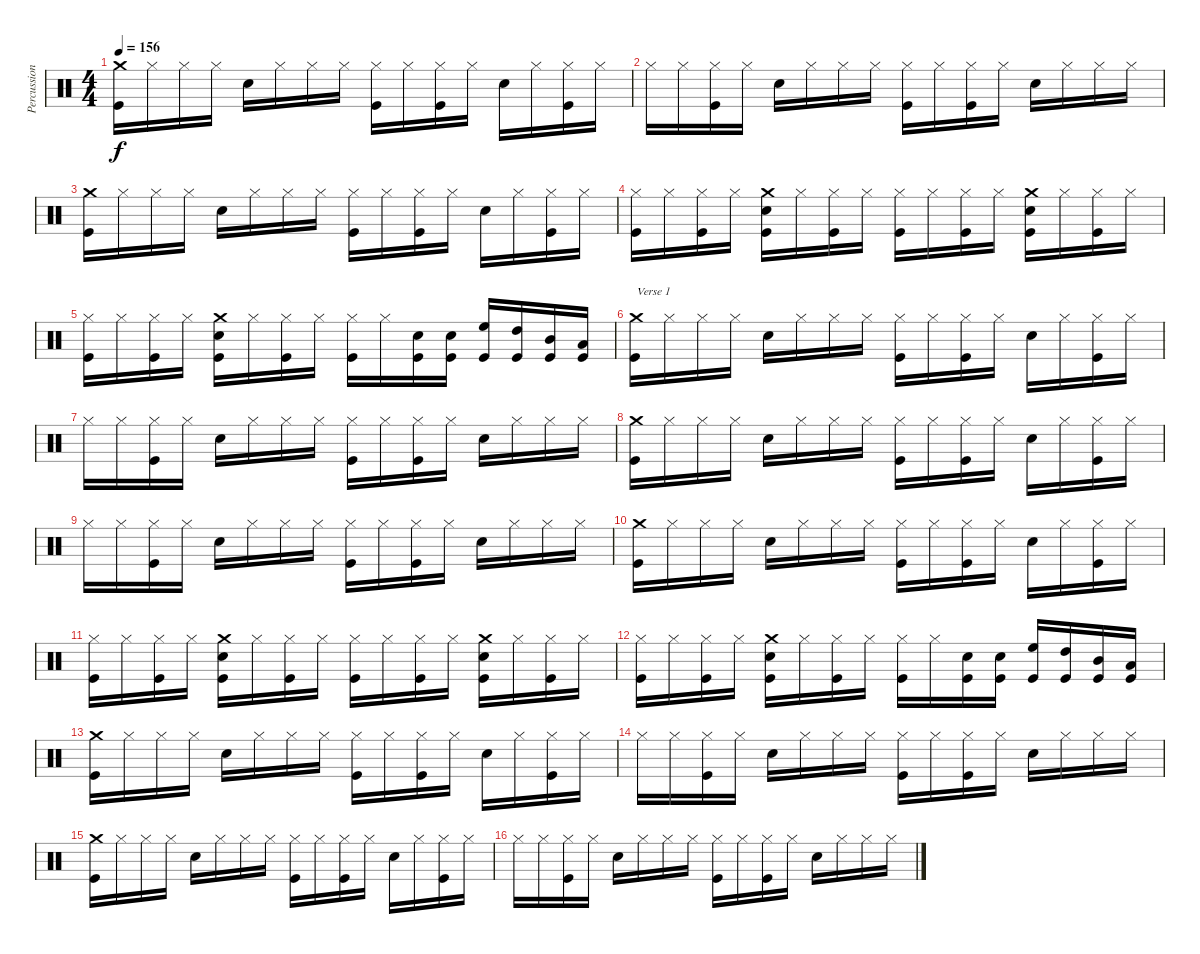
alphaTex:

\track ("Percussion" "Percussion") {instrument percussion}
\staff {score}
\articulation defaults
\ts (4 4)
\tempo 156
\clef neutral
\ks c
("Kick (hit)" "Crash medium (hit)").16{dy f} "Hi-Hat (closed)".16 "Hi-Hat (closed)".16 "Hi-Hat (closed)".16 "Snare (hit) 2".16 "Hi-Hat (closed)".16 "Hi-Hat (closed)".16 "Hi-Hat (closed)".16 ("Kick (hit)" "Hi-Hat (closed)").16 "Hi-Hat (closed)".16 ("Kick (hit)" "Hi-Hat (closed)").16 "Hi-Hat (closed)".16 "Snare (hit) 2".16 "Hi-Hat (closed)".16 ("Kick (hit)" "Hi-Hat (closed)").16 "Hi-Hat (closed)".16 |
"Hi-Hat (closed)".16 "Hi-Hat (closed)".16 ("Kick (hit)" "Hi-Hat (closed)").16 "Hi-Hat (closed)".16 "Snare (hit) 2".16 "Hi-Hat (closed)".16 "Hi-Hat (closed)".16 "Hi-Hat (closed)".16 ("Kick (hit)" "Hi-Hat (closed)").16 "Hi-Hat (closed)".16 ("Kick (hit)" "Hi-Hat (closed)").16 "Hi-Hat (closed)".16 "Snare (hit) 2".16 "Hi-Hat (closed)".16 "Hi-Hat (closed)".16 "Hi-Hat (closed)".16 |
("Kick (hit)" "Crash medium (hit)").16 "Hi-Hat (closed)".16 "Hi-Hat (closed)".16 "Hi-Hat (closed)".16 "Snare (hit) 2".16 "Hi-Hat (closed)".16 "Hi-Hat (closed)".16 "Hi-Hat (closed)".16 ("Kick (hit)" "Hi-Hat (closed)").16 "Hi-Hat (closed)".16 ("Kick (hit)" "Hi-Hat (closed)").16 "Hi-Hat (closed)".16 "Snare (hit) 2".16 "Hi-Hat (closed)".16 ("Kick (hit)" "Hi-Hat (closed)").16 "Hi-Hat (closed)".16 |
("Kick (hit)" "Hi-Hat (closed)").16 "Hi-Hat (closed)".16 ("Kick (hit)" "Hi-Hat (closed)").16 "Hi-Hat (closed)".16 ("Kick (hit)" "Snare (hit) 2" "Crash medium (hit)").16 "Hi-Hat (closed)".16 ("Kick (hit)" "Hi-Hat (closed)").16 "Hi-Hat (closed)".16 ("Kick (hit)" "Hi-Hat (closed)").16 "Hi-Hat (closed)".16 ("Kick (hit)" "Hi-Hat (closed)").16 "Hi-Hat (closed)".16 ("Kick (hit)" "Snare (hit) 2" "Crash medium (hit)").16 "Hi-Hat (closed)".16 ("Kick (hit)" "Hi-Hat (closed)").16 "Hi-Hat (closed)".16 |
("Kick (hit)" "Hi-Hat (closed)").16 "Hi-Hat (closed)".16 ("Kick (hit)" "Hi-Hat (closed)").16 "Hi-Hat (closed)".16 ("Kick (hit)" "Snare (hit) 2" "Crash medium (hit)").16 "Hi-Hat (closed)".16 ("Kick (hit)" "Hi-Hat (closed)").16 "Hi-Hat (closed)".16 ("Kick (hit)" "Hi-Hat (closed)").16 "Hi-Hat (closed)".16 ("Snare (hit) 2" "Kick (hit)").16 ("Snare (hit) 2" "Kick (hit)").16 ("High Floor Tom (hit)" "Kick (hit)").16 ("High Tom (hit)" "Kick (hit)").16 ("Mid Tom (hit)" "Kick (hit)").16 ("Low Tom (hit)" "Kick (hit)").16 |
("Kick (hit)" "Crash medium (hit)").16{txt "Verse 1"} "Hi-Hat (closed)".16 "Hi-Hat (closed)".16 "Hi-Hat (closed)".16 "Snare (hit) 2".16 "Hi-Hat (closed)".16 "Hi-Hat (closed)".16 "Hi-Hat (closed)".16 ("Kick (hit)" "Hi-Hat (closed)").16 "Hi-Hat (closed)".16 ("Kick (hit)" "Hi-Hat (closed)").16 "Hi-Hat (closed)".16 "Snare (hit) 2".16 "Hi-Hat (closed)".16 ("Kick (hit)" "Hi-Hat (closed)").16 "Hi-Hat (closed)".16 |
"Hi-Hat (closed)".16 "Hi-Hat (closed)".16 ("Kick (hit)" "Hi-Hat (closed)").16 "Hi-Hat (closed)".16 "Snare (hit) 2".16 "Hi-Hat (closed)".16 "Hi-Hat (closed)".16 "Hi-Hat (closed)".16 ("Kick (hit)" "Hi-Hat (closed)").16 "Hi-Hat (closed)".16 ("Kick (hit)" "Hi-Hat (closed)").16 "Hi-Hat (closed)".16 "Snare (hit) 2".16 "Hi-Hat (closed)".16 "Hi-Hat (closed)".16 "Hi-Hat (closed)".16 |
("Kick (hit)" "Crash medium (hit)").16 "Hi-Hat (closed)".16 "Hi-Hat (closed)".16 "Hi-Hat (closed)".16 "Snare (hit) 2".16 "Hi-Hat (closed)".16 "Hi-Hat (closed)".16 "Hi-Hat (closed)".16 ("Kick (hit)" "Hi-Hat (closed)").16 "Hi-Hat (closed)".16 ("Kick (hit)" "Hi-Hat (closed)").16 "Hi-Hat (closed)".16 "Snare (hit) 2".16 "Hi-Hat (closed)".16 ("Kick (hit)" "Hi-Hat (closed)").16 "Hi-Hat (closed)".16 |
"Hi-Hat (closed)".16 "Hi-Hat (closed)".16 ("Kick (hit)" "Hi-Hat (closed)").16 "Hi-Hat (closed)".16 "Snare (hit) 2".16 "Hi-Hat (closed)".16 "Hi-Hat (closed)".16 "Hi-Hat (closed)".16 ("Kick (hit)" "Hi-Hat (closed)").16 "Hi-Hat (closed)".16 ("Kick (hit)" "Hi-Hat (closed)").16 "Hi-Hat (closed)".16 "Snare (hit) 2".16 "Hi-Hat (closed)".16 "Hi-Hat (closed)".16 "Hi-Hat (closed)".16 |
("Kick (hit)" "Crash medium (hit)").16 "Hi-Hat (closed)".16 "Hi-Hat (closed)".16 "Hi-Hat (closed)".16 "Snare (hit) 2".16 "Hi-Hat (closed)".16 "Hi-Hat (closed)".16 "Hi-Hat (closed)".16 ("Kick (hit)" "Hi-Hat (closed)").16 "Hi-Hat (closed)".16 ("Kick (hit)" "Hi-Hat (closed)").16 "Hi-Hat (closed)".16 "Snare (hit) 2".16 "Hi-Hat (closed)".16 ("Kick (hit)" "Hi-Hat (closed)").16 "Hi-Hat (closed)".16 |
("Kick (hit)" "Hi-Hat (closed)").16 "Hi-Hat (closed)".16 ("Kick (hit)" "Hi-Hat (closed)").16 "Hi-Hat (closed)".16 ("Kick (hit)" "Snare (hit) 2" "Crash medium (hit)").16 "Hi-Hat (closed)".16 ("Kick (hit)" "Hi-Hat (closed)").16 "Hi-Hat (closed)".16 ("Kick (hit)" "Hi-Hat (closed)").16 "Hi-Hat (closed)".16 ("Kick (hit)" "Hi-Hat (closed)").16 "Hi-Hat (closed)".16 ("Kick (hit)" "Snare (hit) 2" "Crash medium (hit)").16 "Hi-Hat (closed)".16 ("Kick (hit)" "Hi-Hat (closed)").16 "Hi-Hat (closed)".16 |
("Kick (hit)" "Hi-Hat (closed)").16 "Hi-Hat (closed)".16 ("Kick (hit)" "Hi-Hat (closed)").16 "Hi-Hat (closed)".16 ("Kick (hit)" "Snare (hit) 2" "Crash medium (hit)").16 "Hi-Hat (closed)".16 ("Kick (hit)" "Hi-Hat (closed)").16 "Hi-Hat (closed)".16 ("Kick (hit)" "Hi-Hat (closed)").16 "Hi-Hat (closed)".16 ("Snare (hit) 2" "Kick (hit)").16 ("Snare (hit) 2" "Kick (hit)").16 ("High Floor Tom (hit)" "Kick (hit)").16 ("High Tom (hit)" "Kick (hit)").16 ("Mid Tom (hit)" "Kick (hit)").16 ("Low Tom (hit)" "Kick (hit)").16 |
("Kick (hit)" "Crash medium (hit)").16 "Hi-Hat (closed)".16 "Hi-Hat (closed)".16 "Hi-Hat (closed)".16 "Snare (hit) 2".16 "Hi-Hat (closed)".16 "Hi-Hat (closed)".16 "Hi-Hat (closed)".16 ("Kick (hit)" "Hi-Hat (closed)").16 "Hi-Hat (closed)".16 ("Kick (hit)" "Hi-Hat (closed)").16 "Hi-Hat (closed)".16 "Snare (hit) 2".16 "Hi-Hat (closed)".16 ("Kick (hit)" "Hi-Hat (closed)").16 "Hi-Hat (closed)".16 |
"Hi-Hat (closed)".16 "Hi-Hat (closed)".16 ("Kick (hit)" "Hi-Hat (closed)").16 "Hi-Hat (closed)".16 "Snare (hit) 2".16 "Hi-Hat (closed)".16 "Hi-Hat (closed)".16 "Hi-Hat (closed)".16 ("Kick (hit)" "Hi-Hat (closed)").16 "Hi-Hat (closed)".16 ("Kick (hit)" "Hi-Hat (closed)").16 "Hi-Hat (closed)".16 "Snare (hit) 2".16 "Hi-Hat (closed)".16 "Hi-Hat (closed)".16 "Hi-Hat (closed)".16 |
("Kick (hit)" "Crash medium (hit)").16 "Hi-Hat (closed)".16 "Hi-Hat (closed)".16 "Hi-Hat (closed)".16 "Snare (hit) 2".16 "Hi-Hat (closed)".16 "Hi-Hat (closed)".16 "Hi-Hat (closed)".16 ("Kick (hit)" "Hi-Hat (closed)").16 "Hi-Hat (closed)".16 ("Kick (hit)" "Hi-Hat (closed)").16 "Hi-Hat (closed)".16 "Snare (hit) 2".16 "Hi-Hat (closed)".16 ("Kick (hit)" "Hi-Hat (closed)").16 "Hi-Hat (closed)".16 |
"Hi-Hat (closed)".16 "Hi-Hat (closed)".16 ("Kick (hit)" "Hi-Hat (closed)").16 "Hi-Hat (closed)".16 "Snare (hit) 2".16 "Hi-Hat (closed)".16 "Hi-Hat (closed)".16 "Hi-Hat (closed)".16 ("Kick (hit)" "Hi-Hat (closed)").16 "Hi-Hat (closed)".16 ("Kick (hit)" "Hi-Hat (closed)").16 "Hi-Hat (closed)".16 "Snare (hit) 2".16 "Hi-Hat (closed)".16 "Hi-Hat (closed)".16 "Hi-Hat (closed)".16
